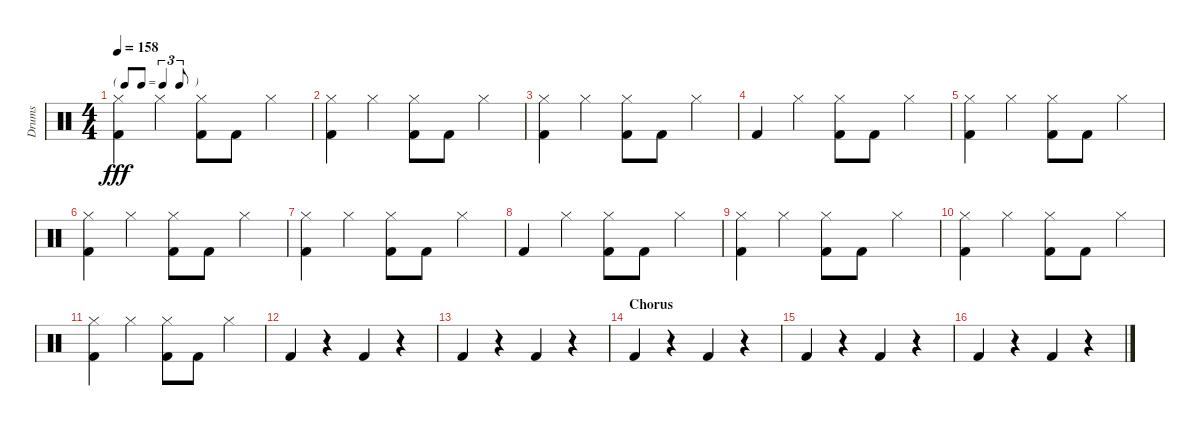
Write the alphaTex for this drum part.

\track ("Drums" "Drums") {instrument percussion}
\staff {score}
\articulation defaults
\ts (4 4)
\tf triplet8th
\tempo 158
\clef neutral
\ks c
("Hi-Hat (closed)" "Kick (hit) 2").4{dy fff} "Hi-Hat (closed)".4 ("Hi-Hat (closed)" "Kick (hit) 2").8 "Kick (hit) 2".8 "Hi-Hat (closed)".4 |
("Hi-Hat (closed)" "Kick (hit) 2").4 "Hi-Hat (closed)".4 ("Hi-Hat (closed)" "Kick (hit) 2").8 "Kick (hit) 2".8 "Hi-Hat (closed)".4 |
("Hi-Hat (closed)" "Kick (hit) 2").4 "Hi-Hat (closed)".4 ("Hi-Hat (closed)" "Kick (hit) 2").8 "Kick (hit) 2".8 "Hi-Hat (closed)".4 |
"Kick (hit) 2".4 "Hi-Hat (closed)".4 ("Hi-Hat (closed)" "Kick (hit) 2").8 "Kick (hit) 2".8 "Hi-Hat (closed)".4 |
("Hi-Hat (closed)" "Kick (hit) 2").4 "Hi-Hat (closed)".4 ("Hi-Hat (closed)" "Kick (hit) 2").8 "Kick (hit) 2".8 "Hi-Hat (closed)".4 |
("Hi-Hat (closed)" "Kick (hit) 2").4 "Hi-Hat (closed)".4 ("Hi-Hat (closed)" "Kick (hit) 2").8 "Kick (hit) 2".8 "Hi-Hat (closed)".4 |
("Hi-Hat (closed)" "Kick (hit) 2").4 "Hi-Hat (closed)".4 ("Hi-Hat (closed)" "Kick (hit) 2").8 "Kick (hit) 2".8 "Hi-Hat (closed)".4 |
"Kick (hit) 2".4 "Hi-Hat (closed)".4 ("Hi-Hat (closed)" "Kick (hit) 2").8 "Kick (hit) 2".8 "Hi-Hat (closed)".4 |
("Hi-Hat (closed)" "Kick (hit) 2").4 "Hi-Hat (closed)".4 ("Hi-Hat (closed)" "Kick (hit) 2").8 "Kick (hit) 2".8 "Hi-Hat (closed)".4 |
("Hi-Hat (closed)" "Kick (hit) 2").4 "Hi-Hat (closed)".4 ("Hi-Hat (closed)" "Kick (hit) 2").8 "Kick (hit) 2".8 "Hi-Hat (closed)".4 |
("Hi-Hat (closed)" "Kick (hit) 2").4 "Hi-Hat (closed)".4 ("Hi-Hat (closed)" "Kick (hit) 2").8 "Kick (hit) 2".8 "Hi-Hat (closed)".4 |
"Kick (hit) 2".4 r.4 "Kick (hit) 2".4 r.4 |
"Kick (hit) 2".4 r.4 "Kick (hit) 2".4 r.4 |
\section ("" "Chorus")
"Kick (hit) 2".4 r.4 "Kick (hit) 2".4 r.4 |
"Kick (hit) 2".4 r.4 "Kick (hit) 2".4 r.4 |
"Kick (hit) 2".4 r.4 "Kick (hit) 2".4 r.4
